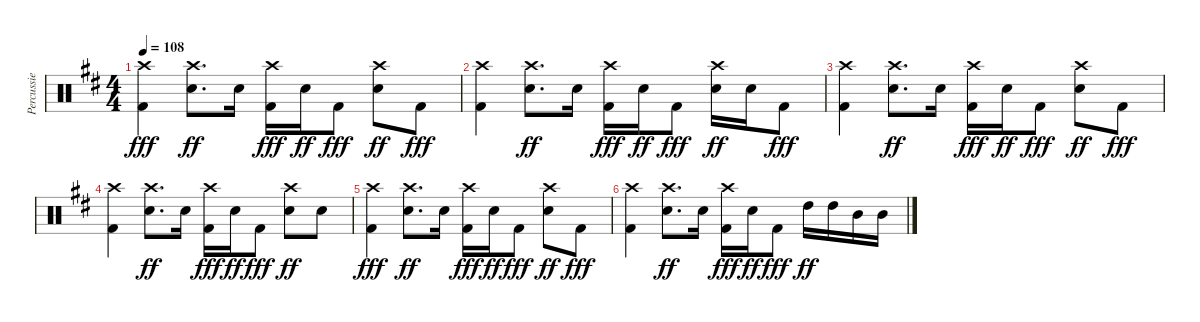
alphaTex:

\track ("Percussie" "Percussie") {instrument percussion}
\staff {score}
\articulation defaults
\ts (4 4)
\tempo 108
\clef neutral
\ks d
("Crash high (hit)" "Kick (hit) 2").4{dy fff} ("Crash high (hit)" "Snare (hit) 2").8{d dy ff} "Snare (hit) 2".16 ("Crash high (hit)" "Kick (hit) 2").16{dy fff} "Snare (hit) 2".16{dy ff} "Kick (hit) 2".8{dy fff} ("Crash high (hit)" "Snare (hit) 2").8{dy ff} "Kick (hit) 2".8{dy fff} |
("Crash high (hit)" "Kick (hit) 2").4 ("Crash high (hit)" "Snare (hit) 2").8{d dy ff} "Snare (hit) 2".16 ("Crash high (hit)" "Kick (hit) 2").16{dy fff} "Snare (hit) 2".16{dy ff} "Kick (hit) 2".8{dy fff} ("Crash high (hit)" "Snare (hit) 2").16{dy ff} "Snare (hit) 2".16 "Kick (hit) 2".8{dy fff} |
("Crash high (hit)" "Kick (hit) 2").4 ("Crash high (hit)" "Snare (hit) 2").8{d dy ff} "Snare (hit) 2".16 ("Crash high (hit)" "Kick (hit) 2").16{dy fff} "Snare (hit) 2".16{dy ff} "Kick (hit) 2".8{dy fff} ("Crash high (hit)" "Snare (hit) 2").8{dy ff} "Kick (hit) 2".8{dy fff} |
("Crash high (hit)" "Kick (hit) 2").4 ("Crash high (hit)" "Snare (hit) 2").8{d dy ff} "Snare (hit) 2".16 ("Crash high (hit)" "Kick (hit) 2").16{dy fff} "Snare (hit) 2".16{dy ff} "Kick (hit) 2".8{dy fff} ("Crash high (hit)" "Snare (hit) 2").8{dy ff} "Snare (hit) 2".8 |
("Crash high (hit)" "Kick (hit) 2").4{dy fff} ("Crash high (hit)" "Snare (hit) 2").8{d dy ff} "Snare (hit) 2".16 ("Crash high (hit)" "Kick (hit) 2").16{dy fff} "Snare (hit) 2".16{dy ff} "Kick (hit) 2".8{dy fff} ("Crash high (hit)" "Snare (hit) 2").8{dy ff} "Kick (hit) 2".8{dy fff} |
("Crash high (hit)" "Kick (hit) 2").4 ("Crash high (hit)" "Snare (hit) 2").8{d dy ff} "Snare (hit) 2".16 ("Crash high (hit)" "Kick (hit) 2").16{dy fff} "Snare (hit) 2".16{dy ff} "Kick (hit) 2".8{dy fff} "High Tom (hit)".16{dy ff} "High Tom (hit)".16 "Mid Tom (hit)".16 "Mid Tom (hit)".16
